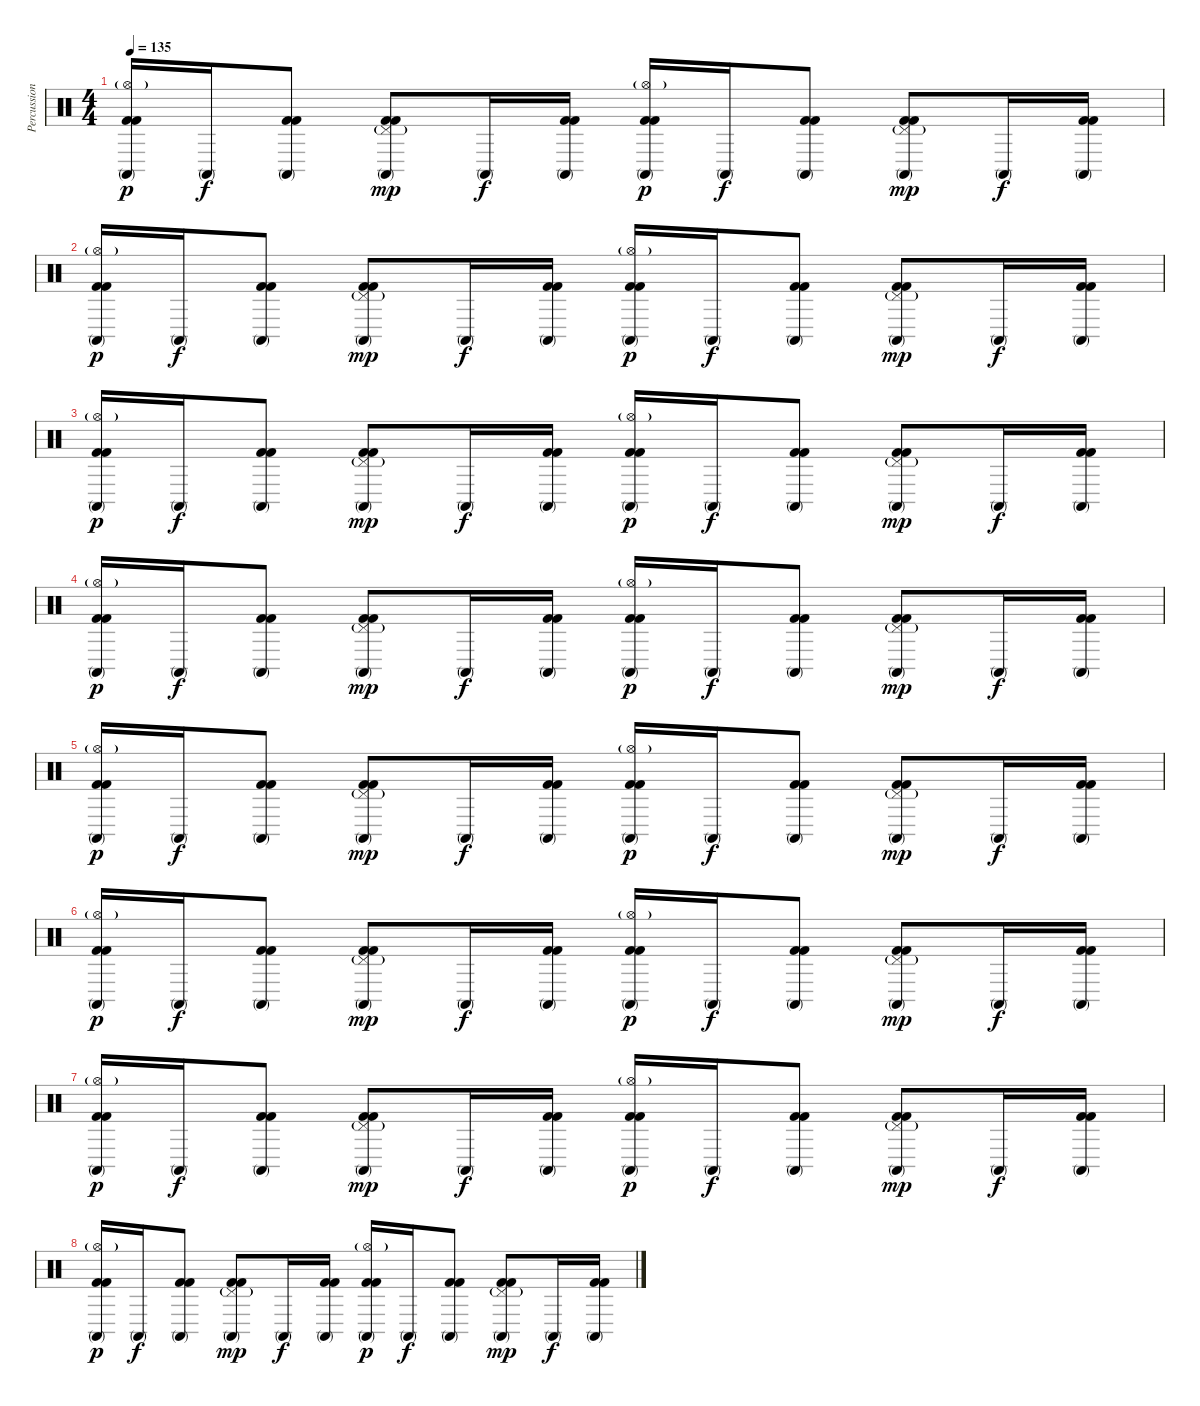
\track ("Percussion" "Percussion") {instrument percussion}
\staff {score}
\articulation defaults
\ts (4 4)
\tempo 135
\clef neutral
\ks c
("Conga high (mute)" "Hi-Hat (open)"{g} "Kick (hit) 2" "Kick (hit) 2").16{dy p} "Conga high (mute)".16{dy f} ("Conga high (mute)" "Kick (hit) 2" "Kick (hit) 2").8 ("Conga high (mute)" "Pedal Hi-Hat (hit)"{g} "Kick (hit) 2" "Kick (hit) 2").8{dy mp} "Conga high (mute)".16{dy f} ("Conga high (mute)" "Kick (hit) 2" "Kick (hit) 2").16 ("Conga high (mute)" "Hi-Hat (open)"{g} "Kick (hit) 2" "Kick (hit) 2").16{dy p} "Conga high (mute)".16{dy f} ("Conga high (mute)" "Kick (hit) 2" "Kick (hit) 2").8 ("Conga high (mute)" "Pedal Hi-Hat (hit)"{g} "Kick (hit) 2" "Kick (hit) 2").8{dy mp} "Conga high (mute)".16{dy f} ("Conga high (mute)" "Kick (hit) 2" "Kick (hit) 2").16 |
("Conga high (mute)" "Hi-Hat (open)"{g} "Kick (hit) 2" "Kick (hit) 2").16{dy p} "Conga high (mute)".16{dy f} ("Conga high (mute)" "Kick (hit) 2" "Kick (hit) 2").8 ("Conga high (mute)" "Pedal Hi-Hat (hit)"{g} "Kick (hit) 2" "Kick (hit) 2").8{dy mp} "Conga high (mute)".16{dy f} ("Conga high (mute)" "Kick (hit) 2" "Kick (hit) 2").16 ("Conga high (mute)" "Hi-Hat (open)"{g} "Kick (hit) 2" "Kick (hit) 2").16{dy p} "Conga high (mute)".16{dy f} ("Conga high (mute)" "Kick (hit) 2" "Kick (hit) 2").8 ("Conga high (mute)" "Pedal Hi-Hat (hit)"{g} "Kick (hit) 2" "Kick (hit) 2").8{dy mp} "Conga high (mute)".16{dy f} ("Conga high (mute)" "Kick (hit) 2" "Kick (hit) 2").16 |
("Conga high (mute)" "Hi-Hat (open)"{g} "Kick (hit) 2" "Kick (hit) 2").16{dy p} "Conga high (mute)".16{dy f} ("Conga high (mute)" "Kick (hit) 2" "Kick (hit) 2").8 ("Conga high (mute)" "Pedal Hi-Hat (hit)"{g} "Kick (hit) 2" "Kick (hit) 2").8{dy mp} "Conga high (mute)".16{dy f} ("Conga high (mute)" "Kick (hit) 2" "Kick (hit) 2").16 ("Conga high (mute)" "Hi-Hat (open)"{g} "Kick (hit) 2" "Kick (hit) 2").16{dy p} "Conga high (mute)".16{dy f} ("Conga high (mute)" "Kick (hit) 2" "Kick (hit) 2").8 ("Conga high (mute)" "Pedal Hi-Hat (hit)"{g} "Kick (hit) 2" "Kick (hit) 2").8{dy mp} "Conga high (mute)".16{dy f} ("Conga high (mute)" "Kick (hit) 2" "Kick (hit) 2").16 |
("Conga high (mute)" "Hi-Hat (open)"{g} "Kick (hit) 2" "Kick (hit) 2").16{dy p} "Conga high (mute)".16{dy f} ("Conga high (mute)" "Kick (hit) 2" "Kick (hit) 2").8 ("Conga high (mute)" "Pedal Hi-Hat (hit)"{g} "Kick (hit) 2" "Kick (hit) 2").8{dy mp} "Conga high (mute)".16{dy f} ("Conga high (mute)" "Kick (hit) 2" "Kick (hit) 2").16 ("Conga high (mute)" "Hi-Hat (open)"{g} "Kick (hit) 2" "Kick (hit) 2").16{dy p} "Conga high (mute)".16{dy f} ("Conga high (mute)" "Kick (hit) 2" "Kick (hit) 2").8 ("Conga high (mute)" "Pedal Hi-Hat (hit)"{g} "Kick (hit) 2" "Kick (hit) 2").8{dy mp} "Conga high (mute)".16{dy f} ("Conga high (mute)" "Kick (hit) 2" "Kick (hit) 2").16 |
("Conga high (mute)" "Hi-Hat (open)"{g} "Kick (hit) 2" "Kick (hit) 2").16{dy p} "Conga high (mute)".16{dy f} ("Conga high (mute)" "Kick (hit) 2" "Kick (hit) 2").8 ("Conga high (mute)" "Pedal Hi-Hat (hit)"{g} "Kick (hit) 2" "Kick (hit) 2").8{dy mp} "Conga high (mute)".16{dy f} ("Conga high (mute)" "Kick (hit) 2" "Kick (hit) 2").16 ("Conga high (mute)" "Hi-Hat (open)"{g} "Kick (hit) 2" "Kick (hit) 2").16{dy p} "Conga high (mute)".16{dy f} ("Conga high (mute)" "Kick (hit) 2" "Kick (hit) 2").8 ("Conga high (mute)" "Pedal Hi-Hat (hit)"{g} "Kick (hit) 2" "Kick (hit) 2").8{dy mp} "Conga high (mute)".16{dy f} ("Conga high (mute)" "Kick (hit) 2" "Kick (hit) 2").16 |
("Conga high (mute)" "Hi-Hat (open)"{g} "Kick (hit) 2" "Kick (hit) 2").16{dy p} "Conga high (mute)".16{dy f} ("Conga high (mute)" "Kick (hit) 2" "Kick (hit) 2").8 ("Conga high (mute)" "Pedal Hi-Hat (hit)"{g} "Kick (hit) 2" "Kick (hit) 2").8{dy mp} "Conga high (mute)".16{dy f} ("Conga high (mute)" "Kick (hit) 2" "Kick (hit) 2").16 ("Conga high (mute)" "Hi-Hat (open)"{g} "Kick (hit) 2" "Kick (hit) 2").16{dy p} "Conga high (mute)".16{dy f} ("Conga high (mute)" "Kick (hit) 2" "Kick (hit) 2").8 ("Conga high (mute)" "Pedal Hi-Hat (hit)"{g} "Kick (hit) 2" "Kick (hit) 2").8{dy mp} "Conga high (mute)".16{dy f} ("Conga high (mute)" "Kick (hit) 2" "Kick (hit) 2").16 |
("Conga high (mute)" "Hi-Hat (open)"{g} "Kick (hit) 2" "Kick (hit) 2").16{dy p} "Conga high (mute)".16{dy f} ("Conga high (mute)" "Kick (hit) 2" "Kick (hit) 2").8 ("Conga high (mute)" "Pedal Hi-Hat (hit)"{g} "Kick (hit) 2" "Kick (hit) 2").8{dy mp} "Conga high (mute)".16{dy f} ("Conga high (mute)" "Kick (hit) 2" "Kick (hit) 2").16 ("Conga high (mute)" "Hi-Hat (open)"{g} "Kick (hit) 2" "Kick (hit) 2").16{dy p} "Conga high (mute)".16{dy f} ("Conga high (mute)" "Kick (hit) 2" "Kick (hit) 2").8 ("Conga high (mute)" "Pedal Hi-Hat (hit)"{g} "Kick (hit) 2" "Kick (hit) 2").8{dy mp} "Conga high (mute)".16{dy f} ("Conga high (mute)" "Kick (hit) 2" "Kick (hit) 2").16 |
("Conga high (mute)" "Hi-Hat (open)"{g} "Kick (hit) 2" "Kick (hit) 2").16{dy p} "Conga high (mute)".16{dy f} ("Conga high (mute)" "Kick (hit) 2" "Kick (hit) 2").8 ("Conga high (mute)" "Pedal Hi-Hat (hit)"{g} "Kick (hit) 2" "Kick (hit) 2").8{dy mp} "Conga high (mute)".16{dy f} ("Conga high (mute)" "Kick (hit) 2" "Kick (hit) 2").16 ("Conga high (mute)" "Hi-Hat (open)"{g} "Kick (hit) 2" "Kick (hit) 2").16{dy p} "Conga high (mute)".16{dy f} ("Conga high (mute)" "Kick (hit) 2" "Kick (hit) 2").8 ("Conga high (mute)" "Pedal Hi-Hat (hit)"{g} "Kick (hit) 2" "Kick (hit) 2").8{dy mp} "Conga high (mute)".16{dy f} ("Conga high (mute)" "Kick (hit) 2" "Kick (hit) 2").16
